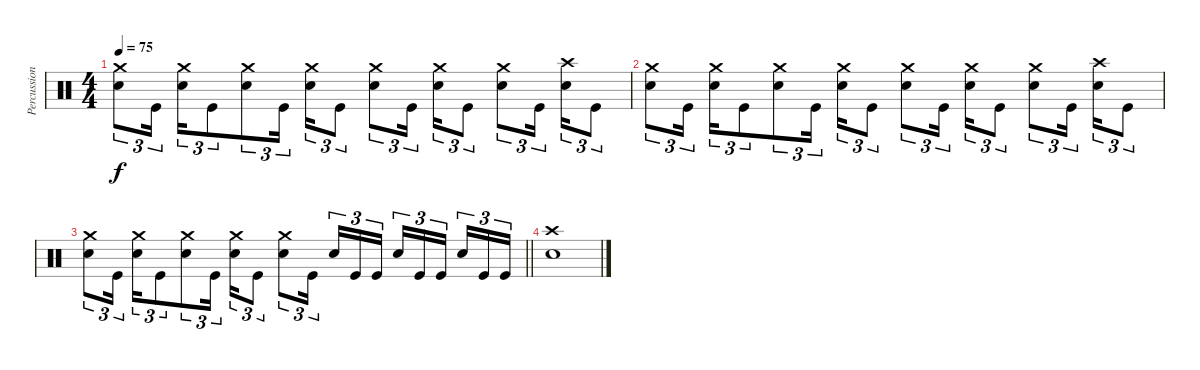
\track ("Percussion" "Percussion") {instrument percussion}
\staff {score}
\articulation defaults
\ts (4 4)
\tempo 75
\clef neutral
\ks c
("Crash medium (hit)" "Snare (hit) 2").8{tu (3 2) dy f} "Kick (hit)".16{tu (3 2) beam splitsecondary} ("Crash medium (hit)" "Snare (hit) 2").16{tu (3 2)} "Kick (hit)".8{tu (3 2) beam merge} ("Crash medium (hit)" "Snare (hit) 2").8{tu (3 2)} "Kick (hit)".16{tu (3 2) beam splitsecondary} ("Crash medium (hit)" "Snare (hit) 2").16{tu (3 2) beam merge} "Kick (hit)".8{tu (3 2)} ("Crash medium (hit)" "Snare (hit) 2").8{tu (3 2)} "Kick (hit)".16{tu (3 2) beam splitsecondary} ("Crash medium (hit)" "Snare (hit) 2").16{tu (3 2)} "Kick (hit)".8{tu (3 2)} ("Crash medium (hit)" "Snare (hit) 2").8{tu (3 2)} "Kick (hit)".16{tu (3 2) beam splitsecondary} ("Crash high (hit)" "Snare (hit) 2").16{tu (3 2)} "Kick (hit)".8{tu (3 2)} |
("Crash medium (hit)" "Snare (hit) 2").8{tu (3 2)} "Kick (hit)".16{tu (3 2) beam splitsecondary} ("Crash medium (hit)" "Snare (hit) 2").16{tu (3 2)} "Kick (hit)".8{tu (3 2) beam merge} ("Crash medium (hit)" "Snare (hit) 2").8{tu (3 2)} "Kick (hit)".16{tu (3 2) beam splitsecondary} ("Crash medium (hit)" "Snare (hit) 2").16{tu (3 2) beam merge} "Kick (hit)".8{tu (3 2)} ("Crash medium (hit)" "Snare (hit) 2").8{tu (3 2)} "Kick (hit)".16{tu (3 2) beam splitsecondary} ("Crash medium (hit)" "Snare (hit) 2").16{tu (3 2)} "Kick (hit)".8{tu (3 2)} ("Crash medium (hit)" "Snare (hit) 2").8{tu (3 2)} "Kick (hit)".16{tu (3 2) beam splitsecondary} ("Crash high (hit)" "Snare (hit) 2").16{tu (3 2)} "Kick (hit)".8{tu (3 2)} |
\barLineRight lightlight
("Crash medium (hit)" "Snare (hit) 2").8{tu (3 2)} "Kick (hit)".16{tu (3 2) beam splitsecondary} ("Crash medium (hit)" "Snare (hit) 2").16{tu (3 2)} "Kick (hit)".8{tu (3 2) beam merge} ("Crash medium (hit)" "Snare (hit) 2").8{tu (3 2)} "Kick (hit)".16{tu (3 2) beam splitsecondary} ("Crash medium (hit)" "Snare (hit) 2").16{tu (3 2) beam merge} "Kick (hit)".8{tu (3 2)} ("Crash medium (hit)" "Snare (hit) 2").8{tu (3 2)} "Kick (hit)".16{tu (3 2) beam splitsecondary} "Snare (hit) 2".16{tu (3 2)} "Kick (hit)".16{tu (3 2)} "Kick (hit)".16{tu (3 2)} "Snare (hit) 2".16{tu (3 2)} "Kick (hit)".16{tu (3 2)} "Kick (hit)".16{tu (3 2) beam splitsecondary} "Snare (hit) 2".16{tu (3 2)} "Kick (hit)".16{tu (3 2)} "Kick (hit)".16{tu (3 2)} |
("Crash high (hit)" "Snare (hit) 2").1
